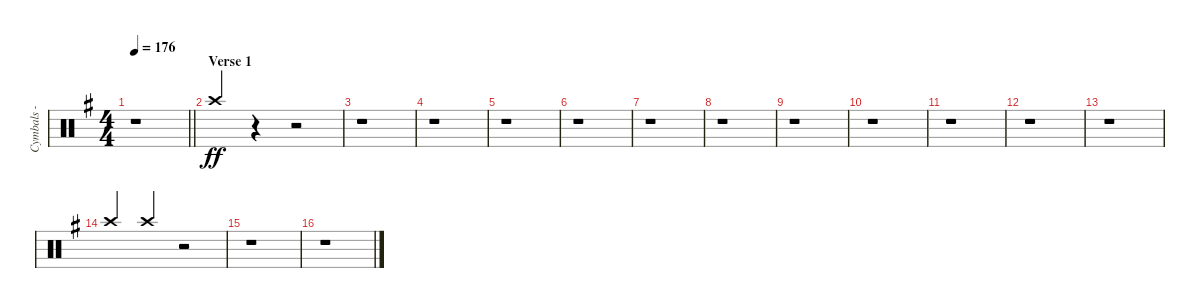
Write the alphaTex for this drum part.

\track ("Cymbals - crash" "Cymbals - ") {instrument percussion}
\staff {score}
\articulation defaults
\ts (4 4)
\tempo 176
\clef neutral
\barLineRight lightlight
\ks eminor
r.1{dy ff} |
\section ("" "Verse 1")
"Crash high (hit)".4{beam Up} r.4 r.2 |
r.1 |
r.1 |
r.1 |
r.1 |
r.1 |
r.1 |
r.1 |
r.1 |
r.1 |
r.1 |
r.1 |
"Crash high (hit)".4{beam Up beam merge} "Crash high (hit)".4{beam Up} r.2 |
r.1 |
r.1
